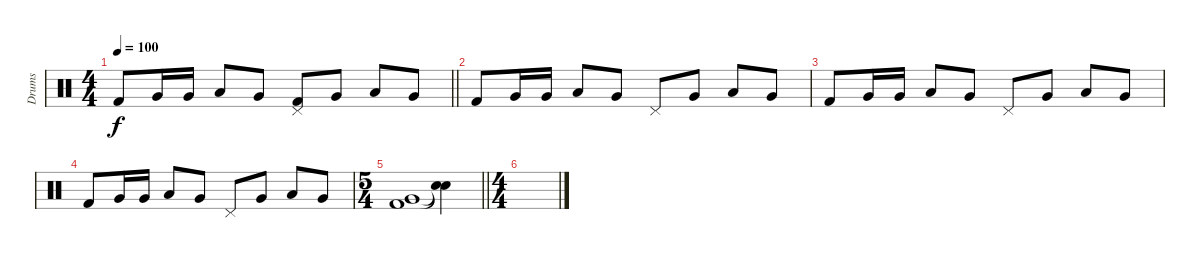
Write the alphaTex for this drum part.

\track ("Drums" "Drums") {instrument percussion}
\staff {score}
\articulation defaults
\ts (4 4)
\tempo 100
\clef neutral
\barLineRight lightlight
\ks c "Kick (hit) 2".8{dy f} "Very Low Tom (hit)".16 "Very Low Tom (hit)".16 "Low Tom (hit)".8 "Very Low Tom (hit)".8
("Pedal Hi-Hat (hit)" "Kick (hit) 2").8 "Very Low Tom (hit)".8 "Low Tom (hit)".8 "Very Low Tom (hit)".8 |
"Kick (hit) 2".8 "Very Low Tom (hit)".16 "Very Low Tom (hit)".16 "Low Tom (hit)".8 "Very Low Tom (hit)".8 "Pedal Hi-Hat (hit)".8 "Very Low Tom (hit)".8 "Low Tom (hit)".8 "Very Low Tom (hit)".8 |
"Kick (hit) 2".8 "Very Low Tom (hit)".16 "Very Low Tom (hit)".16 "Low Tom (hit)".8 "Very Low Tom (hit)".8 "Pedal Hi-Hat (hit)".8 "Very Low Tom (hit)".8 "Low Tom (hit)".8 "Very Low Tom (hit)".8 |
"Kick (hit) 2".8 "Very Low Tom (hit)".16 "Very Low Tom (hit)".16 "Low Tom (hit)".8 "Very Low Tom (hit)".8 "Pedal Hi-Hat (hit)".8 "Very Low Tom (hit)".8 "Low Tom (hit)".8 "Very Low Tom (hit)".8 |
\ts (5 4)
\barLineRight lightlight
("Very Low Tom (hit)" "Kick (hit) 2").1 ("Snare (hit)"{t} "Snare (hit)"{t}).4 |
\ts (4 4)
